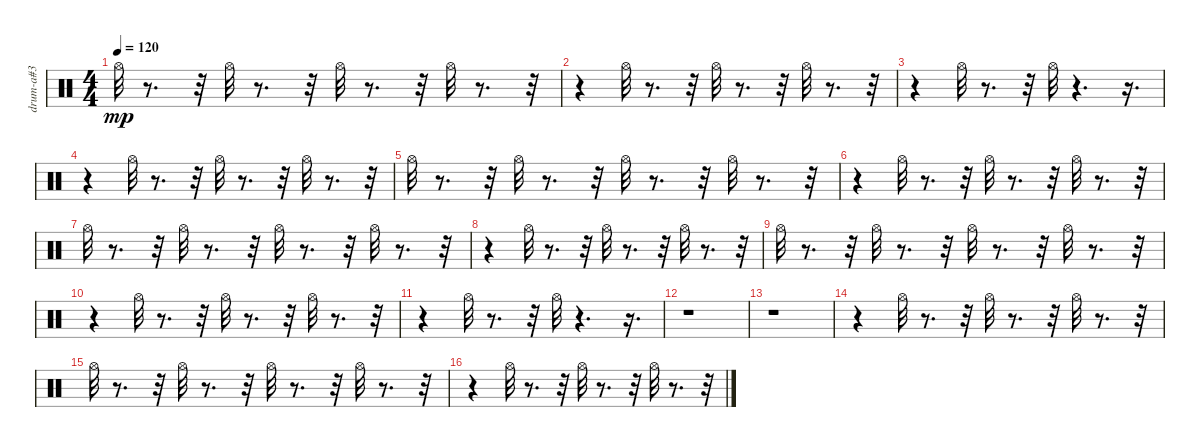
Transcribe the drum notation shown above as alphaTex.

\track ("drum-a#3" "drum-a#3") {instrument percussion}
\staff {score}
\articulation defaults
\ts (4 4)
\tempo 120
\clef neutral
\ks c "Hi-Hat (open)".32{dy mp}
r.8{d} r.32 "Hi-Hat (open)".32 r.8{d} r.32 "Hi-Hat (open)".32 r.8{d} r.32 "Hi-Hat (open)".32 r.8{d} r.32 |
r.4 "Hi-Hat (open)".32 r.8{d} r.32 "Hi-Hat (open)".32 r.8{d} r.32 "Hi-Hat (open)".32 r.8{d} r.32 |
r.4 "Hi-Hat (open)".32 r.8{d} r.32 "Hi-Hat (open)".32 r.4{d} r.16{d} |
r.4 "Hi-Hat (open)".32 r.8{d} r.32 "Hi-Hat (open)".32 r.8{d} r.32 "Hi-Hat (open)".32 r.8{d} r.32 |
"Hi-Hat (open)".32 r.8{d} r.32 "Hi-Hat (open)".32 r.8{d} r.32 "Hi-Hat (open)".32 r.8{d} r.32 "Hi-Hat (open)".32 r.8{d} r.32 |
r.4 "Hi-Hat (open)".32 r.8{d} r.32 "Hi-Hat (open)".32 r.8{d} r.32 "Hi-Hat (open)".32 r.8{d} r.32 |
"Hi-Hat (open)".32 r.8{d} r.32 "Hi-Hat (open)".32 r.8{d} r.32 "Hi-Hat (open)".32 r.8{d} r.32 "Hi-Hat (open)".32 r.8{d} r.32 |
r.4 "Hi-Hat (open)".32 r.8{d} r.32 "Hi-Hat (open)".32 r.8{d} r.32 "Hi-Hat (open)".32 r.8{d} r.32 |
"Hi-Hat (open)".32 r.8{d} r.32 "Hi-Hat (open)".32 r.8{d} r.32 "Hi-Hat (open)".32 r.8{d} r.32 "Hi-Hat (open)".32 r.8{d} r.32 |
r.4 "Hi-Hat (open)".32 r.8{d} r.32 "Hi-Hat (open)".32 r.8{d} r.32 "Hi-Hat (open)".32 r.8{d} r.32 |
r.4 "Hi-Hat (open)".32 r.8{d} r.32 "Hi-Hat (open)".32 r.4{d} r.16{d} |
r.1 |
r.1 |
r.4 "Hi-Hat (open)".32 r.8{d} r.32 "Hi-Hat (open)".32 r.8{d} r.32 "Hi-Hat (open)".32 r.8{d} r.32 |
"Hi-Hat (open)".32 r.8{d} r.32 "Hi-Hat (open)".32 r.8{d} r.32 "Hi-Hat (open)".32 r.8{d} r.32 "Hi-Hat (open)".32 r.8{d} r.32 |
r.4 "Hi-Hat (open)".32 r.8{d} r.32 "Hi-Hat (open)".32 r.8{d} r.32 "Hi-Hat (open)".32 r.8{d} r.32
